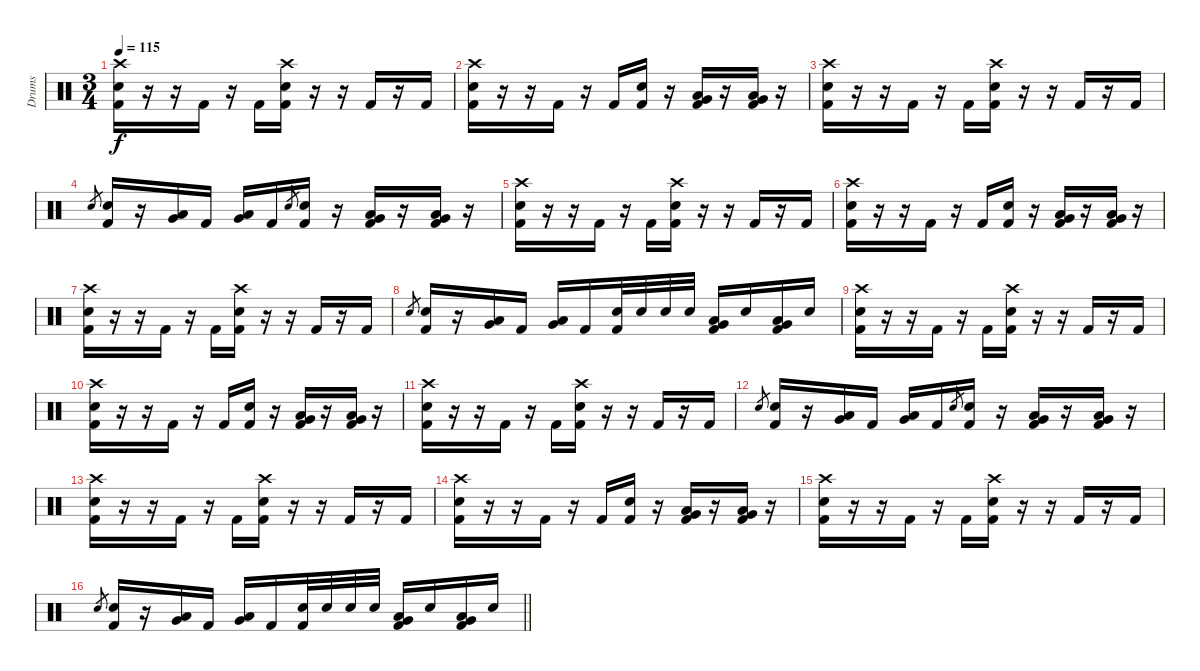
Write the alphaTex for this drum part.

\track ("Drums" "Drums") {instrument percussion}
\staff {score}
\articulation defaults
\ts (3 4)
\tempo 115
\clef neutral
\ks c
("Crash high (hit)" "Electric Snare (hit)" "Kick (hit) 2").16{dy f} r.16 r.16 "Kick (hit) 2".16 r.16 "Kick (hit) 2".16 ("Crash high (hit)" "Electric Snare (hit)" "Kick (hit) 2").16 r.16 r.16 "Kick (hit) 2".16 r.16 "Kick (hit) 2".16 |
("Crash high (hit)" "Electric Snare (hit)" "Kick (hit) 2").16 r.16 r.16 "Kick (hit) 2".16 r.16 "Kick (hit) 2".16 ("Electric Snare (hit)" "Kick (hit) 2").16 r.16 ("Low Tom (hit)" "Very Low Tom (hit)" "Kick (hit) 2").16 r.16 ("Very Low Tom (hit)" "Low Floor Tom (hit)" "Kick (hit) 2").16 r.16 |
("Crash high (hit)" "Electric Snare (hit)" "Kick (hit) 2").16 r.16 r.16 "Kick (hit) 2".16 r.16 "Kick (hit) 2".16 ("Crash high (hit)" "Electric Snare (hit)" "Kick (hit) 2").16 r.16 r.16 "Kick (hit) 2".16 r.16 "Kick (hit) 2".16 |
"Electric Snare (hit)".8{gr} ("Electric Snare (hit)" "Kick (hit) 2").16 r.16 ("Low Tom (hit)" "Very Low Tom (hit)").16 "Kick (hit) 2".16 ("Low Floor Tom (hit)" "Very Low Tom (hit)").16 "Kick (hit) 2".16 "Electric Snare (hit)".8{gr} ("Electric Snare (hit)" "Kick (hit) 2").16 r.16 ("Low Tom (hit)" "Very Low Tom (hit)" "Kick (hit) 2").16 r.16 ("Very Low Tom (hit)" "Low Floor Tom (hit)" "Kick (hit) 2").16 r.16 |
("Crash high (hit)" "Electric Snare (hit)" "Kick (hit) 2").16 r.16 r.16 "Kick (hit) 2".16 r.16 "Kick (hit) 2".16 ("Crash high (hit)" "Electric Snare (hit)" "Kick (hit) 2").16 r.16 r.16 "Kick (hit) 2".16 r.16 "Kick (hit) 2".16 |
("Crash high (hit)" "Electric Snare (hit)" "Kick (hit) 2").16 r.16 r.16 "Kick (hit) 2".16 r.16 "Kick (hit) 2".16 ("Electric Snare (hit)" "Kick (hit) 2").16 r.16 ("Low Tom (hit)" "Very Low Tom (hit)" "Kick (hit) 2").16 r.16 ("Very Low Tom (hit)" "Low Floor Tom (hit)" "Kick (hit) 2").16 r.16 |
("Crash high (hit)" "Electric Snare (hit)" "Kick (hit) 2").16 r.16 r.16 "Kick (hit) 2".16 r.16 "Kick (hit) 2".16 ("Crash high (hit)" "Electric Snare (hit)" "Kick (hit) 2").16 r.16 r.16 "Kick (hit) 2".16 r.16 "Kick (hit) 2".16 |
"Electric Snare (hit)".8{gr} ("Electric Snare (hit)" "Kick (hit) 2").16 r.16 ("Low Tom (hit)" "Very Low Tom (hit)").16 "Kick (hit) 2".16 ("Low Floor Tom (hit)" "Very Low Tom (hit)").16 "Kick (hit) 2".16 ("Electric Snare (hit)" "Kick (hit) 2").32 "Electric Snare (hit)".32 "Electric Snare (hit)".32 "Electric Snare (hit)".32 ("Low Tom (hit)" "Very Low Tom (hit)" "Kick (hit) 2").16 "Electric Snare (hit)".16 ("Very Low Tom (hit)" "Low Floor Tom (hit)" "Kick (hit) 2").16 "Electric Snare (hit)".16 |
("Crash high (hit)" "Electric Snare (hit)" "Kick (hit) 2").16 r.16 r.16 "Kick (hit) 2".16 r.16 "Kick (hit) 2".16 ("Crash high (hit)" "Electric Snare (hit)" "Kick (hit) 2").16 r.16 r.16 "Kick (hit) 2".16 r.16 "Kick (hit) 2".16 |
("Crash high (hit)" "Electric Snare (hit)" "Kick (hit) 2").16 r.16 r.16 "Kick (hit) 2".16 r.16 "Kick (hit) 2".16 ("Electric Snare (hit)" "Kick (hit) 2").16 r.16 ("Low Tom (hit)" "Very Low Tom (hit)" "Kick (hit) 2").16 r.16 ("Very Low Tom (hit)" "Low Floor Tom (hit)" "Kick (hit) 2").16 r.16 |
("Crash high (hit)" "Electric Snare (hit)" "Kick (hit) 2").16 r.16 r.16 "Kick (hit) 2".16 r.16 "Kick (hit) 2".16 ("Crash high (hit)" "Electric Snare (hit)" "Kick (hit) 2").16 r.16 r.16 "Kick (hit) 2".16 r.16 "Kick (hit) 2".16 |
"Electric Snare (hit)".8{gr} ("Electric Snare (hit)" "Kick (hit) 2").16 r.16 ("Low Tom (hit)" "Very Low Tom (hit)").16 "Kick (hit) 2".16 ("Low Floor Tom (hit)" "Very Low Tom (hit)").16 "Kick (hit) 2".16 "Electric Snare (hit)".8{gr} ("Electric Snare (hit)" "Kick (hit) 2").16 r.16 ("Low Tom (hit)" "Very Low Tom (hit)" "Kick (hit) 2").16 r.16 ("Very Low Tom (hit)" "Low Floor Tom (hit)" "Kick (hit) 2").16 r.16 |
("Crash high (hit)" "Electric Snare (hit)" "Kick (hit) 2").16 r.16 r.16 "Kick (hit) 2".16 r.16 "Kick (hit) 2".16 ("Crash high (hit)" "Electric Snare (hit)" "Kick (hit) 2").16 r.16 r.16 "Kick (hit) 2".16 r.16 "Kick (hit) 2".16 |
("Crash high (hit)" "Electric Snare (hit)" "Kick (hit) 2").16 r.16 r.16 "Kick (hit) 2".16 r.16 "Kick (hit) 2".16 ("Electric Snare (hit)" "Kick (hit) 2").16 r.16 ("Low Tom (hit)" "Very Low Tom (hit)" "Kick (hit) 2").16 r.16 ("Very Low Tom (hit)" "Low Floor Tom (hit)" "Kick (hit) 2").16 r.16 |
("Crash high (hit)" "Electric Snare (hit)" "Kick (hit) 2").16 r.16 r.16 "Kick (hit) 2".16 r.16 "Kick (hit) 2".16 ("Crash high (hit)" "Electric Snare (hit)" "Kick (hit) 2").16 r.16 r.16 "Kick (hit) 2".16 r.16 "Kick (hit) 2".16 |
\barLineRight lightlight "Electric Snare (hit)".8{gr}
("Electric Snare (hit)" "Kick (hit) 2").16 r.16 ("Low Tom (hit)" "Very Low Tom (hit)").16 "Kick (hit) 2".16 ("Low Floor Tom (hit)" "Very Low Tom (hit)").16 "Kick (hit) 2".16 ("Electric Snare (hit)" "Kick (hit) 2").32 "Electric Snare (hit)".32 "Electric Snare (hit)".32 "Electric Snare (hit)".32 ("Low Tom (hit)" "Very Low Tom (hit)" "Kick (hit) 2").16 "Electric Snare (hit)".16 ("Very Low Tom (hit)" "Low Floor Tom (hit)" "Kick (hit) 2").16 "Electric Snare (hit)".16
